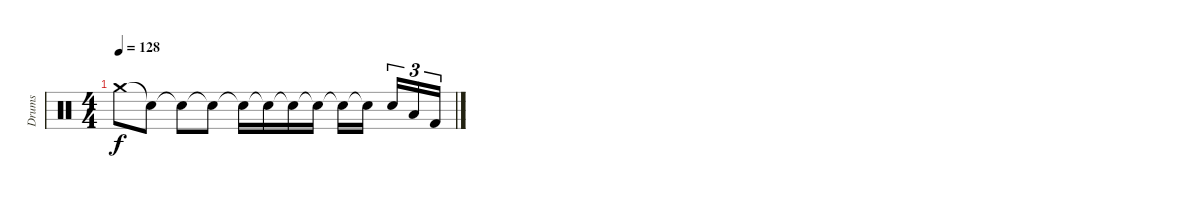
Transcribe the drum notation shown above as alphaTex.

\track ("Drums" "Drums") {instrument percussion}
\staff {score}
\articulation defaults
\ts (4 4)
\tempo 128
\clef neutral
\ks c "Crash medium (hit)".8{dy f} "Snare (hit)"{t}.8 "Snare (hit)"{t}.8 "Snare (hit)"{t}.8 "Snare (hit)"{t}.16 "Snare (hit)"{t}.16 "Snare (hit)"{t}.16 "Snare (hit)"{t}.16 "Snare (hit)"{t}.16 "Snare (hit)"{t}.16{beam splitsecondary} "Snare (hit) 2".16{tu (3 2)} "Low Floor Tom (hit)".16{tu (3 2)} "Kick (hit) 2".16{tu (3 2)}
